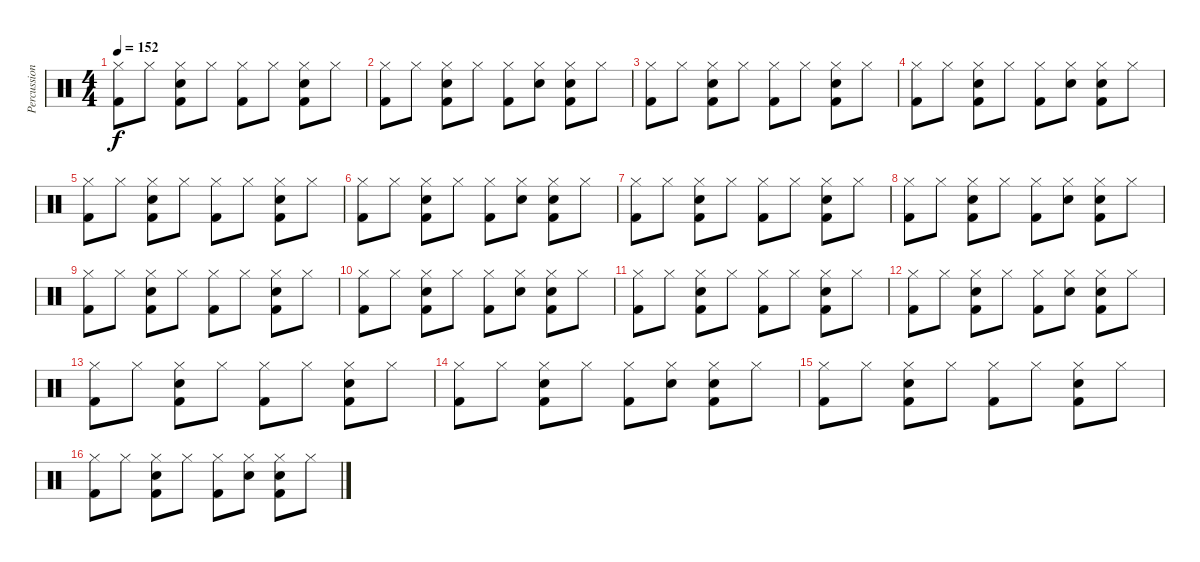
\track ("Percussion" "Percussion") {instrument percussion}
\staff {score}
\articulation defaults
\ts (4 4)
\tempo 152
\clef neutral
\ks c
("Hi-Hat (closed)" "Kick (hit) 2").8{dy f} "Hi-Hat (closed)".8 ("Hi-Hat (closed)" "Electric Snare (hit)" "Kick (hit) 2").8 "Hi-Hat (closed)".8 ("Hi-Hat (closed)" "Kick (hit) 2").8 "Hi-Hat (closed)".8 ("Hi-Hat (closed)" "Electric Snare (hit)" "Kick (hit) 2").8 "Hi-Hat (closed)".8 |
("Hi-Hat (closed)" "Kick (hit) 2").8 "Hi-Hat (closed)".8 ("Hi-Hat (closed)" "Electric Snare (hit)" "Kick (hit) 2").8 "Hi-Hat (closed)".8 ("Hi-Hat (closed)" "Kick (hit) 2").8 ("Hi-Hat (closed)" "Electric Snare (hit)").8 ("Hi-Hat (closed)" "Electric Snare (hit)" "Kick (hit) 2").8 "Hi-Hat (closed)".8 |
("Hi-Hat (closed)" "Kick (hit) 2").8 "Hi-Hat (closed)".8 ("Hi-Hat (closed)" "Electric Snare (hit)" "Kick (hit) 2").8 "Hi-Hat (closed)".8 ("Hi-Hat (closed)" "Kick (hit) 2").8 "Hi-Hat (closed)".8 ("Hi-Hat (closed)" "Electric Snare (hit)" "Kick (hit) 2").8 "Hi-Hat (closed)".8 |
("Hi-Hat (closed)" "Kick (hit) 2").8 "Hi-Hat (closed)".8 ("Hi-Hat (closed)" "Electric Snare (hit)" "Kick (hit) 2").8 "Hi-Hat (closed)".8 ("Hi-Hat (closed)" "Kick (hit) 2").8 ("Hi-Hat (closed)" "Electric Snare (hit)").8 ("Hi-Hat (closed)" "Electric Snare (hit)" "Kick (hit) 2").8 "Hi-Hat (closed)".8 |
("Hi-Hat (closed)" "Kick (hit) 2").8 "Hi-Hat (closed)".8 ("Hi-Hat (closed)" "Electric Snare (hit)" "Kick (hit) 2").8 "Hi-Hat (closed)".8 ("Hi-Hat (closed)" "Kick (hit) 2").8 "Hi-Hat (closed)".8 ("Hi-Hat (closed)" "Electric Snare (hit)" "Kick (hit) 2").8 "Hi-Hat (closed)".8 |
("Hi-Hat (closed)" "Kick (hit) 2").8 "Hi-Hat (closed)".8 ("Hi-Hat (closed)" "Electric Snare (hit)" "Kick (hit) 2").8 "Hi-Hat (closed)".8 ("Hi-Hat (closed)" "Kick (hit) 2").8 ("Hi-Hat (closed)" "Electric Snare (hit)").8 ("Hi-Hat (closed)" "Electric Snare (hit)" "Kick (hit) 2").8 "Hi-Hat (closed)".8 |
("Hi-Hat (closed)" "Kick (hit) 2").8 "Hi-Hat (closed)".8 ("Hi-Hat (closed)" "Electric Snare (hit)" "Kick (hit) 2").8 "Hi-Hat (closed)".8 ("Hi-Hat (closed)" "Kick (hit) 2").8 "Hi-Hat (closed)".8 ("Hi-Hat (closed)" "Electric Snare (hit)" "Kick (hit) 2").8 "Hi-Hat (closed)".8 |
("Hi-Hat (closed)" "Kick (hit) 2").8 "Hi-Hat (closed)".8 ("Hi-Hat (closed)" "Electric Snare (hit)" "Kick (hit) 2").8 "Hi-Hat (closed)".8 ("Hi-Hat (closed)" "Kick (hit) 2").8 ("Hi-Hat (closed)" "Electric Snare (hit)").8 ("Hi-Hat (closed)" "Electric Snare (hit)" "Kick (hit) 2").8 "Hi-Hat (closed)".8 |
("Hi-Hat (closed)" "Kick (hit) 2").8 "Hi-Hat (closed)".8 ("Hi-Hat (closed)" "Electric Snare (hit)" "Kick (hit) 2").8 "Hi-Hat (closed)".8 ("Hi-Hat (closed)" "Kick (hit) 2").8 "Hi-Hat (closed)".8 ("Hi-Hat (closed)" "Electric Snare (hit)" "Kick (hit) 2").8 "Hi-Hat (closed)".8 |
("Hi-Hat (closed)" "Kick (hit) 2").8 "Hi-Hat (closed)".8 ("Hi-Hat (closed)" "Electric Snare (hit)" "Kick (hit) 2").8 "Hi-Hat (closed)".8 ("Hi-Hat (closed)" "Kick (hit) 2").8 ("Hi-Hat (closed)" "Electric Snare (hit)").8 ("Hi-Hat (closed)" "Electric Snare (hit)" "Kick (hit) 2").8 "Hi-Hat (closed)".8 |
("Hi-Hat (closed)" "Kick (hit) 2").8 "Hi-Hat (closed)".8 ("Hi-Hat (closed)" "Electric Snare (hit)" "Kick (hit) 2").8 "Hi-Hat (closed)".8 ("Hi-Hat (closed)" "Kick (hit) 2").8 "Hi-Hat (closed)".8 ("Hi-Hat (closed)" "Electric Snare (hit)" "Kick (hit) 2").8 "Hi-Hat (closed)".8 |
("Hi-Hat (closed)" "Kick (hit) 2").8 "Hi-Hat (closed)".8 ("Hi-Hat (closed)" "Electric Snare (hit)" "Kick (hit) 2").8 "Hi-Hat (closed)".8 ("Hi-Hat (closed)" "Kick (hit) 2").8 ("Hi-Hat (closed)" "Electric Snare (hit)").8 ("Hi-Hat (closed)" "Electric Snare (hit)" "Kick (hit) 2").8 "Hi-Hat (closed)".8 |
("Hi-Hat (closed)" "Kick (hit) 2").8 "Hi-Hat (closed)".8 ("Hi-Hat (closed)" "Electric Snare (hit)" "Kick (hit) 2").8 "Hi-Hat (closed)".8 ("Hi-Hat (closed)" "Kick (hit) 2").8 "Hi-Hat (closed)".8 ("Hi-Hat (closed)" "Electric Snare (hit)" "Kick (hit) 2").8 "Hi-Hat (closed)".8 |
("Hi-Hat (closed)" "Kick (hit) 2").8 "Hi-Hat (closed)".8 ("Hi-Hat (closed)" "Electric Snare (hit)" "Kick (hit) 2").8 "Hi-Hat (closed)".8 ("Hi-Hat (closed)" "Kick (hit) 2").8 ("Hi-Hat (closed)" "Electric Snare (hit)").8 ("Hi-Hat (closed)" "Electric Snare (hit)" "Kick (hit) 2").8 "Hi-Hat (closed)".8 |
("Hi-Hat (closed)" "Kick (hit) 2").8 "Hi-Hat (closed)".8 ("Hi-Hat (closed)" "Electric Snare (hit)" "Kick (hit) 2").8 "Hi-Hat (closed)".8 ("Hi-Hat (closed)" "Kick (hit) 2").8 "Hi-Hat (closed)".8 ("Hi-Hat (closed)" "Electric Snare (hit)" "Kick (hit) 2").8 "Hi-Hat (closed)".8 |
("Hi-Hat (closed)" "Kick (hit) 2").8 "Hi-Hat (closed)".8 ("Hi-Hat (closed)" "Electric Snare (hit)" "Kick (hit) 2").8 "Hi-Hat (closed)".8 ("Hi-Hat (closed)" "Kick (hit) 2").8 ("Hi-Hat (closed)" "Electric Snare (hit)").8 ("Hi-Hat (closed)" "Electric Snare (hit)" "Kick (hit) 2").8 "Hi-Hat (closed)".8
